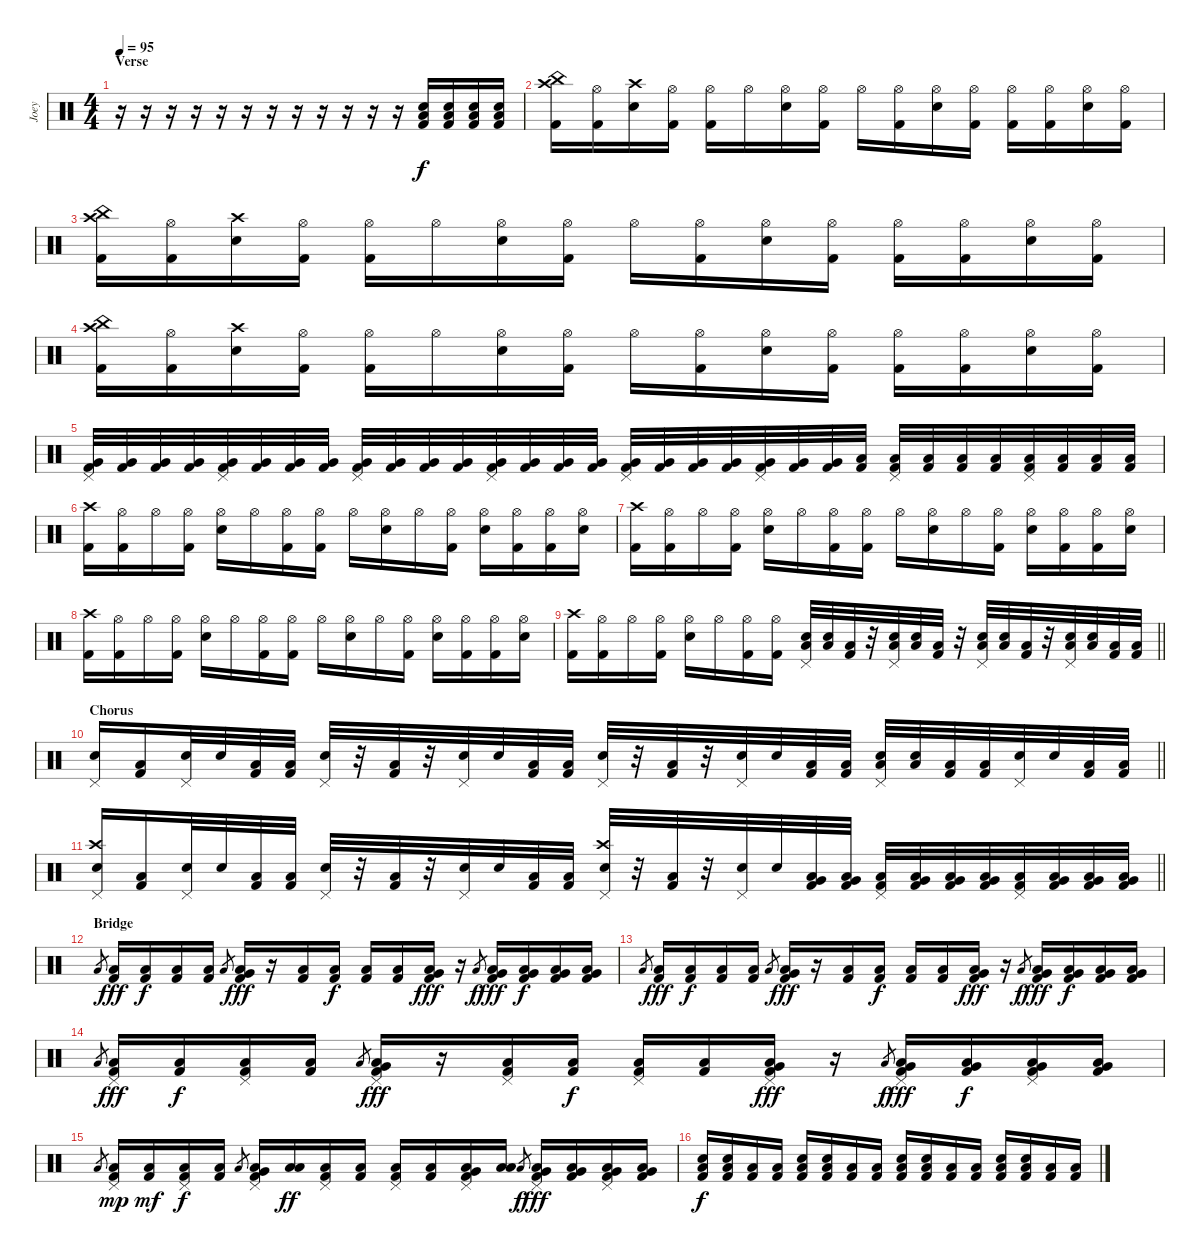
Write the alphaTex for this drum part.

\track ("Joey" "Joey") {instrument percussion}
\staff {score}
\articulation defaults
\ts (4 4)
\section ("" "Verse")
\tempo 95
\clef neutral
\ks c
r.16{dy f} r.16 r.16 r.16 r.16 r.16 r.16 r.16 r.16 r.16 r.16 r.16 ("Kick (hit) 2" "Low Floor Tom (hit)" "Electric Snare (hit)").16 ("Kick (hit) 2" "Low Floor Tom (hit)" "Electric Snare (hit)").16 ("Kick (hit) 2" "Low Floor Tom (hit)" "Electric Snare (hit)").16 ("Kick (hit) 2" "Low Floor Tom (hit)" "Electric Snare (hit)").16 |
("China (hit)" "Crash high (hit)" "Kick (hit) 2").16 ("Hi-Hat (open)" "Kick (hit) 2").16 ("Crash high (hit)" "Electric Snare (hit)").16 ("Hi-Hat (open)" "Kick (hit) 2").16 ("Hi-Hat (open)" "Kick (hit) 2").16 "Hi-Hat (open)".16 ("Hi-Hat (open)" "Electric Snare (hit)").16 ("Hi-Hat (open)" "Kick (hit) 2").16 "Hi-Hat (open)".16 ("Hi-Hat (open)" "Kick (hit) 2").16 ("Hi-Hat (open)" "Electric Snare (hit)").16 ("Hi-Hat (open)" "Kick (hit) 2").16 ("Hi-Hat (open)" "Kick (hit) 2").16 ("Hi-Hat (open)" "Kick (hit) 2").16 ("Hi-Hat (open)" "Electric Snare (hit)").16 ("Hi-Hat (open)" "Kick (hit) 2").16 |
("China (hit)" "Crash high (hit)" "Kick (hit) 2").16 ("Hi-Hat (open)" "Kick (hit) 2").16 ("Crash high (hit)" "Electric Snare (hit)").16 ("Hi-Hat (open)" "Kick (hit) 2").16 ("Hi-Hat (open)" "Kick (hit) 2").16 "Hi-Hat (open)".16 ("Hi-Hat (open)" "Electric Snare (hit)").16 ("Hi-Hat (open)" "Kick (hit) 2").16 "Hi-Hat (open)".16 ("Hi-Hat (open)" "Kick (hit) 2").16 ("Hi-Hat (open)" "Electric Snare (hit)").16 ("Hi-Hat (open)" "Kick (hit) 2").16 ("Hi-Hat (open)" "Kick (hit) 2").16 ("Hi-Hat (open)" "Kick (hit) 2").16 ("Hi-Hat (open)" "Electric Snare (hit)").16 ("Hi-Hat (open)" "Kick (hit) 2").16 |
("China (hit)" "Crash high (hit)" "Kick (hit) 2").16 ("Hi-Hat (open)" "Kick (hit) 2").16 ("Crash high (hit)" "Electric Snare (hit)").16 ("Hi-Hat (open)" "Kick (hit) 2").16 ("Hi-Hat (open)" "Kick (hit) 2").16 "Hi-Hat (open)".16 ("Hi-Hat (open)" "Electric Snare (hit)").16 ("Hi-Hat (open)" "Kick (hit) 2").16 "Hi-Hat (open)".16 ("Hi-Hat (open)" "Kick (hit) 2").16 ("Hi-Hat (open)" "Electric Snare (hit)").16 ("Hi-Hat (open)" "Kick (hit) 2").16 ("Hi-Hat (open)" "Kick (hit) 2").16 ("Hi-Hat (open)" "Kick (hit) 2").16 ("Hi-Hat (open)" "Electric Snare (hit)").16 ("Hi-Hat (open)" "Kick (hit) 2").16 |
("Pedal Hi-Hat (hit)" "Very Low Tom (hit)" "Kick (hit) 2").32 ("Very Low Tom (hit)" "Kick (hit) 2").32 ("Very Low Tom (hit)" "Kick (hit) 2").32 ("Very Low Tom (hit)" "Kick (hit) 2").32 ("Pedal Hi-Hat (hit)" "Very Low Tom (hit)" "Kick (hit) 2").32 ("Very Low Tom (hit)" "Kick (hit) 2").32 ("Very Low Tom (hit)" "Kick (hit) 2").32 ("Very Low Tom (hit)" "Kick (hit) 2").32 ("Pedal Hi-Hat (hit)" "Very Low Tom (hit)" "Kick (hit) 2").32 ("Very Low Tom (hit)" "Kick (hit) 2").32 ("Very Low Tom (hit)" "Kick (hit) 2").32 ("Very Low Tom (hit)" "Kick (hit) 2").32 ("Pedal Hi-Hat (hit)" "Very Low Tom (hit)" "Kick (hit) 2").32 ("Very Low Tom (hit)" "Kick (hit) 2").32 ("Very Low Tom (hit)" "Kick (hit) 2").32 ("Very Low Tom (hit)" "Kick (hit) 2").32 ("Pedal Hi-Hat (hit)" "Very Low Tom (hit)" "Kick (hit) 2").32 ("Very Low Tom (hit)" "Kick (hit) 2").32 ("Very Low Tom (hit)" "Kick (hit) 2").32 ("Very Low Tom (hit)" "Kick (hit) 2").32 ("Pedal Hi-Hat (hit)" "Very Low Tom (hit)" "Kick (hit) 2").32 ("Very Low Tom (hit)" "Kick (hit) 2").32 ("Very Low Tom (hit)" "Kick (hit) 2").32 ("Low Floor Tom (hit)" "Kick (hit) 2").32 ("Pedal Hi-Hat (hit)" "Low Floor Tom (hit)" "Kick (hit) 2").32 ("Low Floor Tom (hit)" "Kick (hit) 2").32 ("Low Floor Tom (hit)" "Kick (hit) 2").32 ("Low Floor Tom (hit)" "Kick (hit) 2").32 ("Pedal Hi-Hat (hit)" "Low Floor Tom (hit)" "Kick (hit) 2").32 ("Low Floor Tom (hit)" "Kick (hit) 2").32 ("Low Floor Tom (hit)" "Kick (hit) 2").32 ("Low Floor Tom (hit)" "Kick (hit) 2").32 |
("Crash high (hit)" "Kick (hit) 2").16 ("Hi-Hat (open)" "Kick (hit) 2").16 "Hi-Hat (open)".16 ("Hi-Hat (open)" "Kick (hit) 2").16 ("Hi-Hat (open)" "Electric Snare (hit)").16 "Hi-Hat (open)".16 ("Hi-Hat (open)" "Kick (hit) 2").16 ("Hi-Hat (open)" "Kick (hit) 2").16 "Hi-Hat (open)".16 ("Hi-Hat (open)" "Electric Snare (hit)").16 "Hi-Hat (open)".16 ("Hi-Hat (open)" "Kick (hit) 2").16 ("Hi-Hat (open)" "Electric Snare (hit)").16 ("Hi-Hat (open)" "Kick (hit) 2").16 ("Hi-Hat (open)" "Kick (hit) 2").16 ("Hi-Hat (open)" "Electric Snare (hit)").16 |
("Crash high (hit)" "Kick (hit) 2").16 ("Hi-Hat (open)" "Kick (hit) 2").16 "Hi-Hat (open)".16 ("Hi-Hat (open)" "Kick (hit) 2").16 ("Hi-Hat (open)" "Electric Snare (hit)").16 "Hi-Hat (open)".16 ("Hi-Hat (open)" "Kick (hit) 2").16 ("Hi-Hat (open)" "Kick (hit) 2").16 "Hi-Hat (open)".16 ("Hi-Hat (open)" "Electric Snare (hit)").16 "Hi-Hat (open)".16 ("Hi-Hat (open)" "Kick (hit) 2").16 ("Hi-Hat (open)" "Electric Snare (hit)").16 ("Hi-Hat (open)" "Kick (hit) 2").16 ("Hi-Hat (open)" "Kick (hit) 2").16 ("Hi-Hat (open)" "Electric Snare (hit)").16 |
("Crash high (hit)" "Kick (hit) 2").16 ("Hi-Hat (open)" "Kick (hit) 2").16 "Hi-Hat (open)".16 ("Hi-Hat (open)" "Kick (hit) 2").16 ("Hi-Hat (open)" "Electric Snare (hit)").16 "Hi-Hat (open)".16 ("Hi-Hat (open)" "Kick (hit) 2").16 ("Hi-Hat (open)" "Kick (hit) 2").16 "Hi-Hat (open)".16 ("Hi-Hat (open)" "Electric Snare (hit)").16 "Hi-Hat (open)".16 ("Hi-Hat (open)" "Kick (hit) 2").16 ("Hi-Hat (open)" "Electric Snare (hit)").16 ("Hi-Hat (open)" "Kick (hit) 2").16 ("Hi-Hat (open)" "Kick (hit) 2").16 ("Hi-Hat (open)" "Electric Snare (hit)").16 |
\barLineRight lightlight
("Crash high (hit)" "Kick (hit) 2").16 ("Hi-Hat (open)" "Kick (hit) 2").16 "Hi-Hat (open)".16 ("Hi-Hat (open)" "Kick (hit) 2").16 ("Hi-Hat (open)" "Electric Snare (hit)").16 "Hi-Hat (open)".16 ("Hi-Hat (open)" "Kick (hit) 2").16 ("Hi-Hat (open)" "Kick (hit) 2").16 ("Low Floor Tom (hit)" "Pedal Hi-Hat (hit)" "Electric Snare (hit)").32 ("Low Floor Tom (hit)" "Electric Snare (hit)").32 ("Low Floor Tom (hit)" "Kick (hit) 2").32 r.32 ("Low Floor Tom (hit)" "Pedal Hi-Hat (hit)" "Electric Snare (hit)").32 ("Low Floor Tom (hit)" "Electric Snare (hit)").32 ("Low Floor Tom (hit)" "Kick (hit) 2").32 r.32 ("Low Floor Tom (hit)" "Pedal Hi-Hat (hit)" "Electric Snare (hit)").32 ("Low Floor Tom (hit)" "Electric Snare (hit)").32 ("Low Floor Tom (hit)" "Kick (hit) 2").32 r.32 ("Low Floor Tom (hit)" "Pedal Hi-Hat (hit)" "Electric Snare (hit)").32 ("Low Floor Tom (hit)" "Electric Snare (hit)").32 ("Low Floor Tom (hit)" "Kick (hit) 2").32 ("Low Floor Tom (hit)" "Kick (hit) 2").32 |
\section ("" "Chorus")
\barLineRight lightlight
("Pedal Hi-Hat (hit)" "Electric Snare (hit)").16 ("Low Floor Tom (hit)" "Kick (hit) 2").16 ("Pedal Hi-Hat (hit)" "Electric Snare (hit)").32 "Electric Snare (hit)".32 ("Low Floor Tom (hit)" "Kick (hit) 2").32 ("Low Floor Tom (hit)" "Kick (hit) 2").32 ("Pedal Hi-Hat (hit)" "Electric Snare (hit)").32 r.32 ("Low Floor Tom (hit)" "Kick (hit) 2").32 r.32 ("Pedal Hi-Hat (hit)" "Electric Snare (hit)").32 "Electric Snare (hit)".32 ("Low Floor Tom (hit)" "Kick (hit) 2").32 ("Low Floor Tom (hit)" "Kick (hit) 2").32 ("Pedal Hi-Hat (hit)" "Electric Snare (hit)").32 r.32 ("Low Floor Tom (hit)" "Kick (hit) 2").32 r.32 ("Pedal Hi-Hat (hit)" "Electric Snare (hit)").32 "Electric Snare (hit)".32 ("Low Floor Tom (hit)" "Kick (hit) 2").32 ("Low Floor Tom (hit)" "Kick (hit) 2").32 ("Pedal Hi-Hat (hit)" "Low Floor Tom (hit)" "Electric Snare (hit)").32 ("Low Floor Tom (hit)" "Electric Snare (hit)").32 ("Low Floor Tom (hit)" "Kick (hit) 2").32 ("Low Floor Tom (hit)" "Kick (hit) 2").32 ("Pedal Hi-Hat (hit)" "Electric Snare (hit)").32 "Electric Snare (hit)".32 ("Low Floor Tom (hit)" "Kick (hit) 2").32 ("Low Floor Tom (hit)" "Kick (hit) 2").32 |
\barLineRight lightlight
("Crash high (hit)" "Pedal Hi-Hat (hit)" "Electric Snare (hit)").16 ("Low Floor Tom (hit)" "Kick (hit) 2").16 ("Pedal Hi-Hat (hit)" "Electric Snare (hit)").32 "Electric Snare (hit)".32 ("Low Floor Tom (hit)" "Kick (hit) 2").32 ("Low Floor Tom (hit)" "Kick (hit) 2").32 ("Pedal Hi-Hat (hit)" "Electric Snare (hit)").32 r.32 ("Low Floor Tom (hit)" "Kick (hit) 2").32 r.32 ("Pedal Hi-Hat (hit)" "Electric Snare (hit)").32 "Electric Snare (hit)".32 ("Low Floor Tom (hit)" "Kick (hit) 2").32 ("Low Floor Tom (hit)" "Kick (hit) 2").32 ("Crash high (hit)" "Pedal Hi-Hat (hit)" "Electric Snare (hit)").32 r.32 ("Low Floor Tom (hit)" "Kick (hit) 2").32 r.32 ("Pedal Hi-Hat (hit)" "Electric Snare (hit)").32 "Electric Snare (hit)".32 ("Very Low Tom (hit)" "Low Floor Tom (hit)" "Kick (hit) 2").32 ("Very Low Tom (hit)" "Low Floor Tom (hit)" "Kick (hit) 2").32 ("Pedal Hi-Hat (hit)" "Low Floor Tom (hit)" "Kick (hit) 2").32 ("Very Low Tom (hit)" "Low Floor Tom (hit)" "Kick (hit) 2").32 ("Very Low Tom (hit)" "Low Floor Tom (hit)" "Kick (hit) 2").32 ("Very Low Tom (hit)" "Low Floor Tom (hit)" "Kick (hit) 2").32 ("Pedal Hi-Hat (hit)" "Low Floor Tom (hit)" "Kick (hit) 2").32 ("Very Low Tom (hit)" "Low Floor Tom (hit)" "Kick (hit) 2").32 ("Very Low Tom (hit)" "Low Floor Tom (hit)" "Kick (hit) 2").32 ("Very Low Tom (hit)" "Low Floor Tom (hit)" "Kick (hit) 2").32 |
\section ("" "Bridge")
"Low Floor Tom (hit)".8{gr} ("Kick (hit) 2" "Low Floor Tom (hit)").16{dy fff} ("Kick (hit) 2" "Low Floor Tom (hit)").16{dy f} ("Kick (hit) 2" "Low Floor Tom (hit)").16 ("Kick (hit) 2" "Low Floor Tom (hit)").16 "Low Floor Tom (hit)".8{gr} ("Very Low Tom (hit)" "Kick (hit) 2" "Low Floor Tom (hit)").16{dy fff} r.16 ("Kick (hit) 2" "Low Floor Tom (hit)").16 ("Kick (hit) 2" "Low Floor Tom (hit)").16{dy f} ("Kick (hit) 2" "Low Floor Tom (hit)").16 ("Kick (hit) 2" "Low Floor Tom (hit)").16 ("Very Low Tom (hit)" "Kick (hit) 2" "Low Floor Tom (hit)").16{dy fff} r.16 "Low Floor Tom (hit)".8{gr dy f} ("Very Low Tom (hit)" "Kick (hit) 2" "Low Floor Tom (hit)").16{dy fff} ("Very Low Tom (hit)" "Kick (hit) 2" "Low Floor Tom (hit)").16{dy f} ("Very Low Tom (hit)" "Kick (hit) 2" "Low Floor Tom (hit)").16 ("Very Low Tom (hit)" "Kick (hit) 2" "Low Floor Tom (hit)").16 |
"Low Floor Tom (hit)".8{gr} ("Kick (hit) 2" "Low Floor Tom (hit)").16{dy fff} ("Kick (hit) 2" "Low Floor Tom (hit)").16{dy f} ("Kick (hit) 2" "Low Floor Tom (hit)").16 ("Kick (hit) 2" "Low Floor Tom (hit)").16 "Low Floor Tom (hit)".8{gr} ("Very Low Tom (hit)" "Kick (hit) 2" "Low Floor Tom (hit)").16{dy fff} r.16 ("Kick (hit) 2" "Low Floor Tom (hit)").16 ("Kick (hit) 2" "Low Floor Tom (hit)").16{dy f} ("Kick (hit) 2" "Low Floor Tom (hit)").16 ("Kick (hit) 2" "Low Floor Tom (hit)").16 ("Very Low Tom (hit)" "Kick (hit) 2" "Low Floor Tom (hit)").16{dy fff} r.16 "Low Floor Tom (hit)".8{gr dy f} ("Very Low Tom (hit)" "Kick (hit) 2" "Low Floor Tom (hit)").16{dy fff} ("Very Low Tom (hit)" "Kick (hit) 2" "Low Floor Tom (hit)").16{dy f} ("Very Low Tom (hit)" "Kick (hit) 2" "Low Floor Tom (hit)").16 ("Very Low Tom (hit)" "Kick (hit) 2" "Low Floor Tom (hit)").16 |
"Low Floor Tom (hit)".8{gr} ("Pedal Hi-Hat (hit)" "Kick (hit) 2" "Low Floor Tom (hit)").16{dy fff} ("Kick (hit) 2" "Low Floor Tom (hit)").16{dy f} ("Pedal Hi-Hat (hit)" "Kick (hit) 2" "Low Floor Tom (hit)").16 ("Kick (hit) 2" "Low Floor Tom (hit)").16 "Low Floor Tom (hit)".8{gr} ("Pedal Hi-Hat (hit)" "Very Low Tom (hit)" "Kick (hit) 2" "Low Floor Tom (hit)").16{dy fff} r.16 ("Pedal Hi-Hat (hit)" "Kick (hit) 2" "Low Floor Tom (hit)").16 ("Kick (hit) 2" "Low Floor Tom (hit)").16{dy f} ("Pedal Hi-Hat (hit)" "Kick (hit) 2" "Low Floor Tom (hit)").16 ("Kick (hit) 2" "Low Floor Tom (hit)").16 ("Pedal Hi-Hat (hit)" "Very Low Tom (hit)" "Kick (hit) 2" "Low Floor Tom (hit)").16{dy fff} r.16 "Low Floor Tom (hit)".8{gr dy f} ("Pedal Hi-Hat (hit)" "Very Low Tom (hit)" "Kick (hit) 2" "Low Floor Tom (hit)").16{dy fff} ("Very Low Tom (hit)" "Kick (hit) 2" "Low Floor Tom (hit)").16{dy f} ("Pedal Hi-Hat (hit)" "Very Low Tom (hit)" "Kick (hit) 2" "Low Floor Tom (hit)").16 ("Very Low Tom (hit)" "Kick (hit) 2" "Low Floor Tom (hit)").16 |
"Low Floor Tom (hit)".8{gr} ("Pedal Hi-Hat (hit)" "Kick (hit) 2" "Low Floor Tom (hit)").16{dy mp} ("Kick (hit) 2" "Low Floor Tom (hit)").16{dy mf} ("Pedal Hi-Hat (hit)" "Kick (hit) 2" "Low Floor Tom (hit)").16{dy f} ("Kick (hit) 2" "Low Floor Tom (hit)").16 "Low Floor Tom (hit)".8{gr} ("Pedal Hi-Hat (hit)" "Very Low Tom (hit)" "Kick (hit) 2" "Low Floor Tom (hit)").16 ("Low Floor Tom (hit)" "Low Floor Tom (hit)").16{dy ff} ("Pedal Hi-Hat (hit)" "Kick (hit) 2" "Low Floor Tom (hit)").16 ("Kick (hit) 2" "Low Floor Tom (hit)").16 ("Pedal Hi-Hat (hit)" "Kick (hit) 2" "Low Floor Tom (hit)").16 ("Kick (hit) 2" "Low Floor Tom (hit)").16 ("Pedal Hi-Hat (hit)" "Very Low Tom (hit)" "Kick (hit) 2" "Low Floor Tom (hit)").16 ("Low Floor Tom (hit)" "Low Floor Tom (hit)").16 "Low Floor Tom (hit)".8{gr dy f} ("Pedal Hi-Hat (hit)" "Very Low Tom (hit)" "Kick (hit) 2" "Low Floor Tom (hit)").16{dy fff} ("Very Low Tom (hit)" "Kick (hit) 2" "Low Floor Tom (hit)").16 ("Pedal Hi-Hat (hit)" "Very Low Tom (hit)" "Kick (hit) 2" "Low Floor Tom (hit)").16 ("Very Low Tom (hit)" "Kick (hit) 2" "Low Floor Tom (hit)").16 |
("Low Floor Tom (hit)" "Electric Snare (hit)" "Kick (hit) 2").16{dy f} ("Low Floor Tom (hit)" "Electric Snare (hit)" "Kick (hit) 2").16 ("Low Floor Tom (hit)" "Kick (hit) 2").16 ("Low Floor Tom (hit)" "Kick (hit) 2").16 ("Low Floor Tom (hit)" "Electric Snare (hit)" "Kick (hit) 2").16 ("Low Floor Tom (hit)" "Electric Snare (hit)" "Kick (hit) 2").16 ("Low Floor Tom (hit)" "Kick (hit) 2").16 ("Low Floor Tom (hit)" "Kick (hit) 2").16 ("Low Floor Tom (hit)" "Electric Snare (hit)" "Kick (hit) 2").16 ("Low Floor Tom (hit)" "Electric Snare (hit)" "Kick (hit) 2").16 ("Low Floor Tom (hit)" "Kick (hit) 2").16 ("Low Floor Tom (hit)" "Kick (hit) 2").16 ("Low Floor Tom (hit)" "Electric Snare (hit)" "Kick (hit) 2").16 ("Low Floor Tom (hit)" "Electric Snare (hit)" "Kick (hit) 2").16 ("Low Floor Tom (hit)" "Kick (hit) 2").16 ("Low Floor Tom (hit)" "Kick (hit) 2").16
